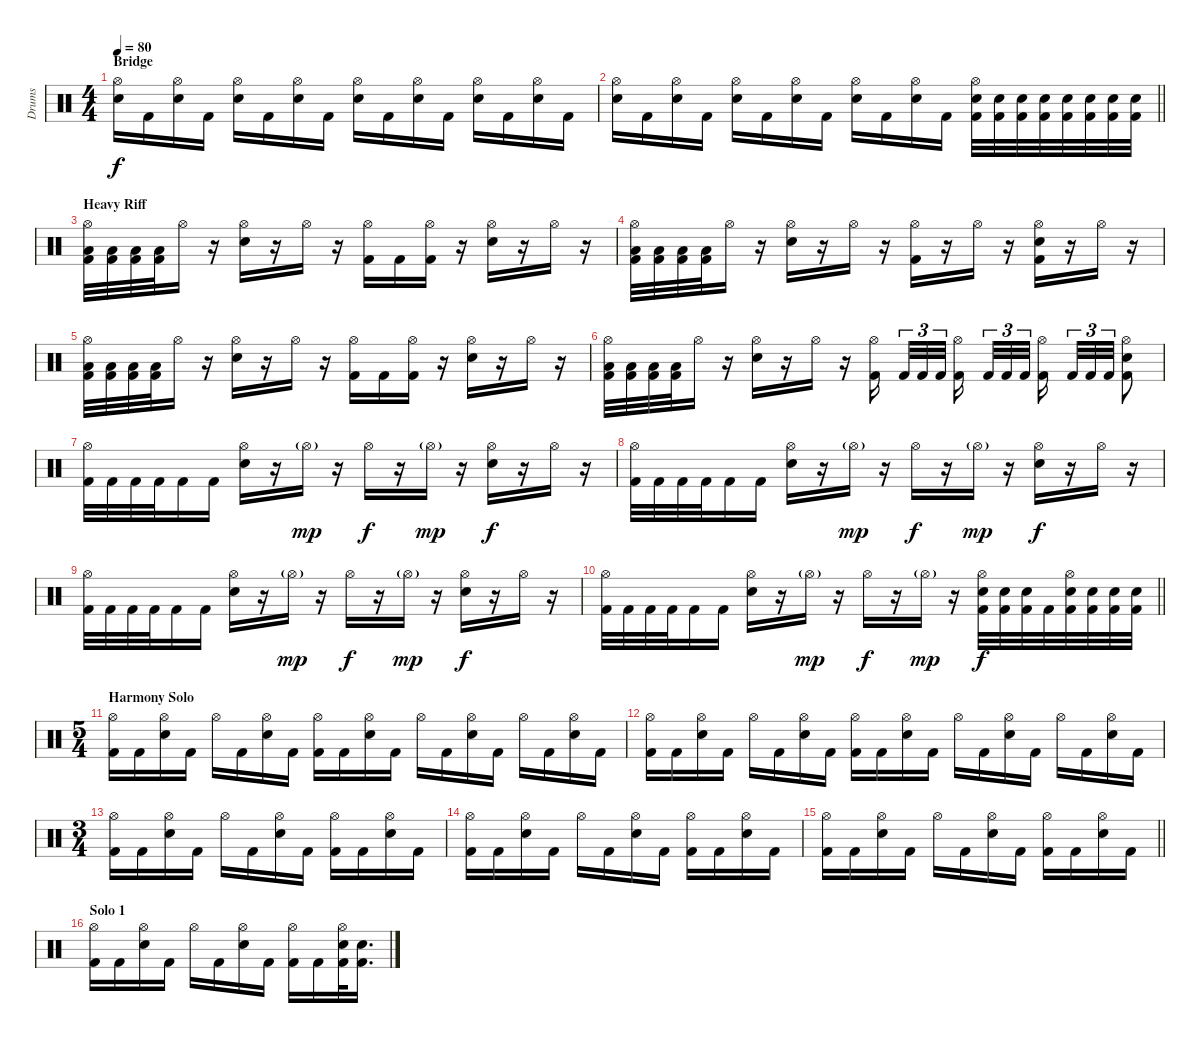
\track ("Drums" "Drums") {instrument percussion}
\staff {score}
\articulation defaults
\ts (4 4)
\section ("" "Bridge")
\tempo 80
\clef neutral
\ks c
("Hi-Hat (open)" "Electric Snare (hit)").16{dy f} "Kick (hit) 2".16 ("Hi-Hat (open)" "Electric Snare (hit)").16 "Kick (hit) 2".16 ("Hi-Hat (open)" "Electric Snare (hit)").16 "Kick (hit) 2".16 ("Hi-Hat (open)" "Electric Snare (hit)").16 "Kick (hit) 2".16 ("Hi-Hat (open)" "Electric Snare (hit)").16 "Kick (hit) 2".16 ("Hi-Hat (open)" "Electric Snare (hit)").16 "Kick (hit) 2".16 ("Hi-Hat (open)" "Electric Snare (hit)").16 "Kick (hit) 2".16 ("Hi-Hat (open)" "Electric Snare (hit)").16 "Kick (hit) 2".16 |
\barLineRight lightlight
("Hi-Hat (open)" "Electric Snare (hit)").16 "Kick (hit) 2".16 ("Hi-Hat (open)" "Electric Snare (hit)").16 "Kick (hit) 2".16 ("Hi-Hat (open)" "Electric Snare (hit)").16 "Kick (hit) 2".16 ("Hi-Hat (open)" "Electric Snare (hit)").16 "Kick (hit) 2".16 ("Hi-Hat (open)" "Electric Snare (hit)").16 "Kick (hit) 2".16 ("Hi-Hat (open)" "Electric Snare (hit)").16 "Kick (hit) 2".16 ("Hi-Hat (open)" "Electric Snare (hit)" "Kick (hit) 2").32 ("Electric Snare (hit)" "Kick (hit) 2").32 ("Electric Snare (hit)" "Kick (hit) 2").32 ("Electric Snare (hit)" "Kick (hit) 2").32 ("Electric Snare (hit)" "Kick (hit) 2").32 ("Electric Snare (hit)" "Kick (hit) 2").32 ("Electric Snare (hit)" "Kick (hit) 2").32 ("Electric Snare (hit)" "Kick (hit) 2").32 |
\section ("" "Heavy Riff")
("Hi-Hat (open)" "Low Floor Tom (hit)" "Kick (hit) 2").32 ("Low Floor Tom (hit)" "Kick (hit) 2").32 ("Low Floor Tom (hit)" "Kick (hit) 2").32 ("Low Floor Tom (hit)" "Kick (hit) 2").32 "Hi-Hat (open)".16 r.16 ("Hi-Hat (open)" "Electric Snare (hit)").16 r.16 "Hi-Hat (open)".16 r.16 ("Hi-Hat (open)" "Kick (hit) 2").16 "Kick (hit) 2".16 ("Hi-Hat (open)" "Kick (hit) 2").16 r.16 ("Hi-Hat (open)" "Electric Snare (hit)").16 r.16 "Hi-Hat (open)".16 r.16 |
("Hi-Hat (open)" "Low Floor Tom (hit)" "Kick (hit) 2").32 ("Low Floor Tom (hit)" "Kick (hit) 2").32 ("Low Floor Tom (hit)" "Kick (hit) 2").32 ("Low Floor Tom (hit)" "Kick (hit) 2").32 "Hi-Hat (open)".16 r.16 ("Hi-Hat (open)" "Electric Snare (hit)").16 r.16 "Hi-Hat (open)".16 r.16 ("Hi-Hat (open)" "Kick (hit) 2").16 r.16 "Hi-Hat (open)".16 r.16 ("Hi-Hat (open)" "Electric Snare (hit)" "Kick (hit) 2").16 r.16 "Hi-Hat (open)".16 r.16 |
("Hi-Hat (open)" "Low Floor Tom (hit)" "Kick (hit) 2").32 ("Low Floor Tom (hit)" "Kick (hit) 2").32 ("Low Floor Tom (hit)" "Kick (hit) 2").32 ("Low Floor Tom (hit)" "Kick (hit) 2").32 "Hi-Hat (open)".16 r.16 ("Hi-Hat (open)" "Electric Snare (hit)").16 r.16 "Hi-Hat (open)".16 r.16 ("Hi-Hat (open)" "Kick (hit) 2").16 "Kick (hit) 2".16 ("Hi-Hat (open)" "Kick (hit) 2").16 r.16 ("Hi-Hat (open)" "Electric Snare (hit)").16 r.16 "Hi-Hat (open)".16 r.16 |
("Hi-Hat (open)" "Low Floor Tom (hit)" "Kick (hit) 2").32 ("Low Floor Tom (hit)" "Kick (hit) 2").32 ("Low Floor Tom (hit)" "Kick (hit) 2").32 ("Low Floor Tom (hit)" "Kick (hit) 2").32 "Hi-Hat (open)".16 r.16 ("Hi-Hat (open)" "Electric Snare (hit)").16 r.16 "Hi-Hat (open)".16 r.16 ("Hi-Hat (open)" "Kick (hit) 2").16{beam splitsecondary} "Kick (hit) 2".32{tu (3 2)} "Kick (hit) 2".32{tu (3 2)} "Kick (hit) 2".32{tu (3 2) beam splitsecondary} ("Hi-Hat (open)" "Kick (hit) 2").16{beam splitsecondary} "Kick (hit) 2".32{tu (3 2)} "Kick (hit) 2".32{tu (3 2)} "Kick (hit) 2".32{tu (3 2)} ("Hi-Hat (open)" "Kick (hit) 2").16{beam splitsecondary} "Kick (hit) 2".32{tu (3 2)} "Kick (hit) 2".32{tu (3 2)} "Kick (hit) 2".32{tu (3 2)} ("Hi-Hat (open)" "Electric Snare (hit)" "Kick (hit) 2").8 |
("Hi-Hat (open)" "Kick (hit) 2").32 "Kick (hit) 2".32 "Kick (hit) 2".32 "Kick (hit) 2".32 "Kick (hit) 2".16 "Kick (hit) 2".16 ("Hi-Hat (open)" "Electric Snare (hit)").16 r.16 "Hi-Hat (open)"{g}.16{dy mp} r.16 "Hi-Hat (open)".16{dy f} r.16 "Hi-Hat (open)"{g}.16{dy mp} r.16 ("Hi-Hat (open)" "Electric Snare (hit)").16{dy f} r.16 "Hi-Hat (open)".16 r.16 |
("Hi-Hat (open)" "Kick (hit) 2").32 "Kick (hit) 2".32 "Kick (hit) 2".32 "Kick (hit) 2".32 "Kick (hit) 2".16 "Kick (hit) 2".16 ("Hi-Hat (open)" "Electric Snare (hit)").16 r.16 "Hi-Hat (open)"{g}.16{dy mp} r.16 "Hi-Hat (open)".16{dy f} r.16 "Hi-Hat (open)"{g}.16{dy mp} r.16 ("Hi-Hat (open)" "Electric Snare (hit)").16{dy f} r.16 "Hi-Hat (open)".16 r.16 |
("Hi-Hat (open)" "Kick (hit) 2").32 "Kick (hit) 2".32 "Kick (hit) 2".32 "Kick (hit) 2".32 "Kick (hit) 2".16 "Kick (hit) 2".16 ("Hi-Hat (open)" "Electric Snare (hit)").16 r.16 "Hi-Hat (open)"{g}.16{dy mp} r.16 "Hi-Hat (open)".16{dy f} r.16 "Hi-Hat (open)"{g}.16{dy mp} r.16 ("Hi-Hat (open)" "Electric Snare (hit)").16{dy f} r.16 "Hi-Hat (open)".16 r.16 |
\barLineRight lightlight
("Hi-Hat (open)" "Kick (hit) 2").32 "Kick (hit) 2".32 "Kick (hit) 2".32 "Kick (hit) 2".32 "Kick (hit) 2".16 "Kick (hit) 2".16 ("Hi-Hat (open)" "Electric Snare (hit)").16 r.16 "Hi-Hat (open)"{g}.16{dy mp} r.16 "Hi-Hat (open)".16{dy f} r.16 "Hi-Hat (open)"{g}.16{dy mp} r.16 ("Hi-Hat (open)" "Electric Snare (hit)" "Kick (hit) 2").32{dy f} ("Electric Snare (hit)" "Kick (hit) 2").32 ("Electric Snare (hit)" "Kick (hit) 2").32 "Kick (hit) 2".32 ("Hi-Hat (open)" "Electric Snare (hit)" "Kick (hit) 2").32 ("Electric Snare (hit)" "Kick (hit) 2").32 ("Electric Snare (hit)" "Kick (hit) 2").32 ("Electric Snare (hit)" "Kick (hit) 2").32 |
\ts (5 4)
\section ("" "Harmony Solo")
("Hi-Hat (open)" "Kick (hit) 2").16 "Kick (hit) 2".16 ("Hi-Hat (open)" "Electric Snare (hit)").16 "Kick (hit) 2".16 "Hi-Hat (open)".16 "Kick (hit) 2".16 ("Hi-Hat (open)" "Electric Snare (hit)").16 "Kick (hit) 2".16 ("Hi-Hat (open)" "Kick (hit) 2").16 "Kick (hit) 2".16 ("Hi-Hat (open)" "Electric Snare (hit)").16 "Kick (hit) 2".16 "Hi-Hat (open)".16 "Kick (hit) 2".16 ("Hi-Hat (open)" "Electric Snare (hit)").16 "Kick (hit) 2".16 "Hi-Hat (open)".16 "Kick (hit) 2".16 ("Hi-Hat (open)" "Electric Snare (hit)").16 "Kick (hit) 2".16 |
("Hi-Hat (open)" "Kick (hit) 2").16 "Kick (hit) 2".16 ("Hi-Hat (open)" "Electric Snare (hit)").16 "Kick (hit) 2".16 "Hi-Hat (open)".16 "Kick (hit) 2".16 ("Hi-Hat (open)" "Electric Snare (hit)").16 "Kick (hit) 2".16 ("Hi-Hat (open)" "Kick (hit) 2").16 "Kick (hit) 2".16 ("Hi-Hat (open)" "Electric Snare (hit)").16 "Kick (hit) 2".16 "Hi-Hat (open)".16 "Kick (hit) 2".16 ("Hi-Hat (open)" "Electric Snare (hit)").16 "Kick (hit) 2".16 "Hi-Hat (open)".16 "Kick (hit) 2".16 ("Hi-Hat (open)" "Electric Snare (hit)").16 "Kick (hit) 2".16 |
\ts (3 4)
("Hi-Hat (open)" "Kick (hit) 2").16 "Kick (hit) 2".16 ("Hi-Hat (open)" "Electric Snare (hit)").16 "Kick (hit) 2".16 "Hi-Hat (open)".16 "Kick (hit) 2".16 ("Hi-Hat (open)" "Electric Snare (hit)").16 "Kick (hit) 2".16 ("Hi-Hat (open)" "Kick (hit) 2").16 "Kick (hit) 2".16 ("Hi-Hat (open)" "Electric Snare (hit)").16 "Kick (hit) 2".16 |
("Hi-Hat (open)" "Kick (hit) 2").16 "Kick (hit) 2".16 ("Hi-Hat (open)" "Electric Snare (hit)").16 "Kick (hit) 2".16 "Hi-Hat (open)".16 "Kick (hit) 2".16 ("Hi-Hat (open)" "Electric Snare (hit)").16 "Kick (hit) 2".16 ("Hi-Hat (open)" "Kick (hit) 2").16 "Kick (hit) 2".16 ("Hi-Hat (open)" "Electric Snare (hit)").16 "Kick (hit) 2".16 |
\barLineRight lightlight
("Hi-Hat (open)" "Kick (hit) 2").16 "Kick (hit) 2".16 ("Hi-Hat (open)" "Electric Snare (hit)").16 "Kick (hit) 2".16 "Hi-Hat (open)".16 "Kick (hit) 2".16 ("Hi-Hat (open)" "Electric Snare (hit)").16 "Kick (hit) 2".16 ("Hi-Hat (open)" "Kick (hit) 2").16 "Kick (hit) 2".16 ("Hi-Hat (open)" "Electric Snare (hit)").16 "Kick (hit) 2".16 |
\section ("" "Solo 1")
("Hi-Hat (open)" "Kick (hit) 2").16 "Kick (hit) 2".16 ("Hi-Hat (open)" "Electric Snare (hit)").16 "Kick (hit) 2".16 "Hi-Hat (open)".16 "Kick (hit) 2".16 ("Hi-Hat (open)" "Electric Snare (hit)").16 "Kick (hit) 2".16 ("Hi-Hat (open)" "Kick (hit) 2").16 "Kick (hit) 2".16 ("Hi-Hat (open)" "Electric Snare (hit)" "Kick (hit) 2").32 ("Electric Snare (hit)" "Kick (hit) 2").16{d}
